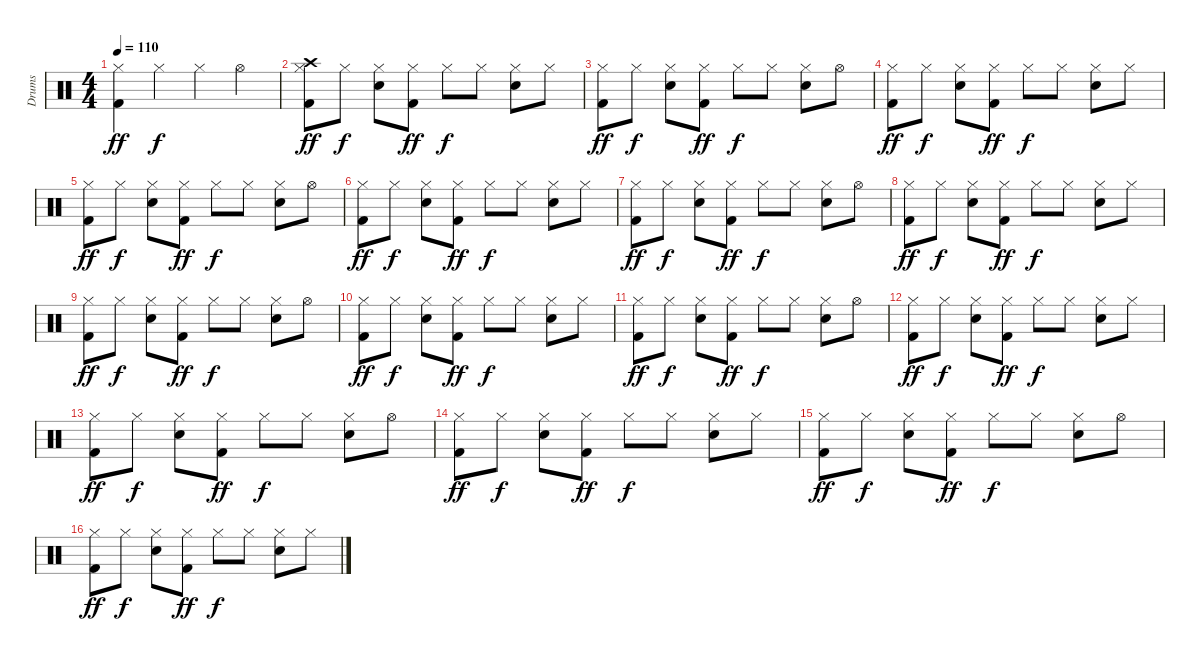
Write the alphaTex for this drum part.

\track ("Drums" "Drums") {instrument percussion}
\staff {score}
\articulation defaults
\ts (4 4)
\tempo 110
\clef neutral
\ks c
("Kick (hit) 2" "Hi-Hat (closed)").4{dy ff} "Hi-Hat (closed)".4{dy f} "Hi-Hat (closed)".4 "Hi-Hat (open)".4 |
("Kick (hit) 2" "Hi-Hat (closed)" "Crash high (hit)").8{dy ff} "Hi-Hat (closed)".8{dy f} ("Snare (hit) 2" "Hi-Hat (closed)").8 ("Kick (hit) 2" "Hi-Hat (closed)").8{dy ff} "Hi-Hat (closed)".8{dy f} "Hi-Hat (closed)".8 ("Snare (hit) 2" "Hi-Hat (closed)").8 "Hi-Hat (closed)".8 |
("Kick (hit) 2" "Hi-Hat (closed)").8{dy ff} "Hi-Hat (closed)".8{dy f} ("Snare (hit) 2" "Hi-Hat (closed)").8 ("Kick (hit) 2" "Hi-Hat (closed)").8{dy ff} "Hi-Hat (closed)".8{dy f} "Hi-Hat (closed)".8 ("Snare (hit) 2" "Hi-Hat (closed)").8 "Hi-Hat (open)".8 |
("Kick (hit) 2" "Hi-Hat (closed)").8{dy ff} "Hi-Hat (closed)".8{dy f} ("Snare (hit) 2" "Hi-Hat (closed)").8 ("Kick (hit) 2" "Hi-Hat (closed)").8{dy ff} "Hi-Hat (closed)".8{dy f} "Hi-Hat (closed)".8 ("Snare (hit) 2" "Hi-Hat (closed)").8 "Hi-Hat (closed)".8 |
("Kick (hit) 2" "Hi-Hat (closed)").8{dy ff} "Hi-Hat (closed)".8{dy f} ("Snare (hit) 2" "Hi-Hat (closed)").8 ("Kick (hit) 2" "Hi-Hat (closed)").8{dy ff} "Hi-Hat (closed)".8{dy f} "Hi-Hat (closed)".8 ("Snare (hit) 2" "Hi-Hat (closed)").8 "Hi-Hat (open)".8 |
("Kick (hit) 2" "Hi-Hat (closed)").8{dy ff} "Hi-Hat (closed)".8{dy f} ("Snare (hit) 2" "Hi-Hat (closed)").8 ("Kick (hit) 2" "Hi-Hat (closed)").8{dy ff} "Hi-Hat (closed)".8{dy f} "Hi-Hat (closed)".8 ("Snare (hit) 2" "Hi-Hat (closed)").8 "Hi-Hat (closed)".8 |
("Kick (hit) 2" "Hi-Hat (closed)").8{dy ff} "Hi-Hat (closed)".8{dy f} ("Snare (hit) 2" "Hi-Hat (closed)").8 ("Kick (hit) 2" "Hi-Hat (closed)").8{dy ff} "Hi-Hat (closed)".8{dy f} "Hi-Hat (closed)".8 ("Snare (hit) 2" "Hi-Hat (closed)").8 "Hi-Hat (open)".8 |
("Kick (hit) 2" "Hi-Hat (closed)").8{dy ff} "Hi-Hat (closed)".8{dy f} ("Snare (hit) 2" "Hi-Hat (closed)").8 ("Kick (hit) 2" "Hi-Hat (closed)").8{dy ff} "Hi-Hat (closed)".8{dy f} "Hi-Hat (closed)".8 ("Snare (hit) 2" "Hi-Hat (closed)").8 "Hi-Hat (closed)".8 |
("Kick (hit) 2" "Hi-Hat (closed)").8{dy ff} "Hi-Hat (closed)".8{dy f} ("Snare (hit) 2" "Hi-Hat (closed)").8 ("Kick (hit) 2" "Hi-Hat (closed)").8{dy ff} "Hi-Hat (closed)".8{dy f} "Hi-Hat (closed)".8 ("Snare (hit) 2" "Hi-Hat (closed)").8 "Hi-Hat (open)".8 |
("Kick (hit) 2" "Hi-Hat (closed)").8{dy ff} "Hi-Hat (closed)".8{dy f} ("Snare (hit) 2" "Hi-Hat (closed)").8 ("Kick (hit) 2" "Hi-Hat (closed)").8{dy ff} "Hi-Hat (closed)".8{dy f} "Hi-Hat (closed)".8 ("Snare (hit) 2" "Hi-Hat (closed)").8 "Hi-Hat (closed)".8 |
("Kick (hit) 2" "Hi-Hat (closed)").8{dy ff} "Hi-Hat (closed)".8{dy f} ("Snare (hit) 2" "Hi-Hat (closed)").8 ("Kick (hit) 2" "Hi-Hat (closed)").8{dy ff} "Hi-Hat (closed)".8{dy f} "Hi-Hat (closed)".8 ("Snare (hit) 2" "Hi-Hat (closed)").8 "Hi-Hat (open)".8 |
("Kick (hit) 2" "Hi-Hat (closed)").8{dy ff} "Hi-Hat (closed)".8{dy f} ("Snare (hit) 2" "Hi-Hat (closed)").8 ("Kick (hit) 2" "Hi-Hat (closed)").8{dy ff} "Hi-Hat (closed)".8{dy f} "Hi-Hat (closed)".8 ("Snare (hit) 2" "Hi-Hat (closed)").8 "Hi-Hat (closed)".8 |
("Kick (hit) 2" "Hi-Hat (closed)").8{dy ff} "Hi-Hat (closed)".8{dy f} ("Snare (hit) 2" "Hi-Hat (closed)").8 ("Kick (hit) 2" "Hi-Hat (closed)").8{dy ff} "Hi-Hat (closed)".8{dy f} "Hi-Hat (closed)".8 ("Snare (hit) 2" "Hi-Hat (closed)").8 "Hi-Hat (open)".8 |
("Kick (hit) 2" "Hi-Hat (closed)").8{dy ff} "Hi-Hat (closed)".8{dy f} ("Snare (hit) 2" "Hi-Hat (closed)").8 ("Kick (hit) 2" "Hi-Hat (closed)").8{dy ff} "Hi-Hat (closed)".8{dy f} "Hi-Hat (closed)".8 ("Snare (hit) 2" "Hi-Hat (closed)").8 "Hi-Hat (closed)".8 |
("Kick (hit) 2" "Hi-Hat (closed)").8{dy ff} "Hi-Hat (closed)".8{dy f} ("Snare (hit) 2" "Hi-Hat (closed)").8 ("Kick (hit) 2" "Hi-Hat (closed)").8{dy ff} "Hi-Hat (closed)".8{dy f} "Hi-Hat (closed)".8 ("Snare (hit) 2" "Hi-Hat (closed)").8 "Hi-Hat (open)".8 |
("Kick (hit) 2" "Hi-Hat (closed)").8{dy ff} "Hi-Hat (closed)".8{dy f} ("Snare (hit) 2" "Hi-Hat (closed)").8 ("Kick (hit) 2" "Hi-Hat (closed)").8{dy ff} "Hi-Hat (closed)".8{dy f} "Hi-Hat (closed)".8 ("Snare (hit) 2" "Hi-Hat (closed)").8 "Hi-Hat (closed)".8
